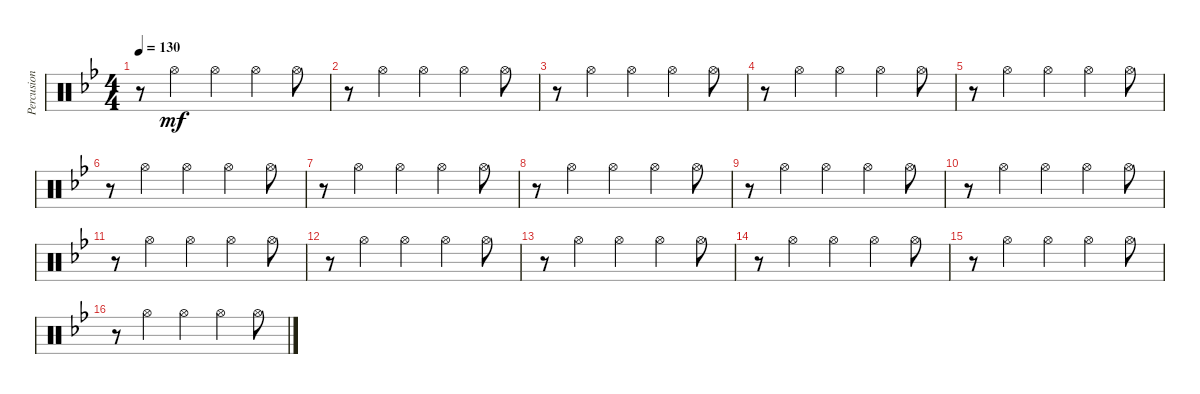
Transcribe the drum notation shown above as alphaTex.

\track ("Percusion IV" "Percusion ") {instrument percussion}
\staff {score}
\articulation defaults
\ts (4 4)
\tempo 130
\clef neutral
\ks gminor
r.8{dy mf} "Hi-Hat (open)".4 "Hi-Hat (open)".4 "Hi-Hat (open)".4 "Hi-Hat (open)".8 |
r.8 "Hi-Hat (open)".4 "Hi-Hat (open)".4 "Hi-Hat (open)".4 "Hi-Hat (open)".8 |
r.8 "Hi-Hat (open)".4 "Hi-Hat (open)".4 "Hi-Hat (open)".4 "Hi-Hat (open)".8 |
r.8 "Hi-Hat (open)".4 "Hi-Hat (open)".4 "Hi-Hat (open)".4 "Hi-Hat (open)".8 |
r.8 "Hi-Hat (open)".4 "Hi-Hat (open)".4 "Hi-Hat (open)".4 "Hi-Hat (open)".8 |
r.8 "Hi-Hat (open)".4 "Hi-Hat (open)".4 "Hi-Hat (open)".4 "Hi-Hat (open)".8 |
r.8 "Hi-Hat (open)".4 "Hi-Hat (open)".4 "Hi-Hat (open)".4 "Hi-Hat (open)".8 |
r.8 "Hi-Hat (open)".4 "Hi-Hat (open)".4 "Hi-Hat (open)".4 "Hi-Hat (open)".8 |
r.8 "Hi-Hat (open)".4 "Hi-Hat (open)".4 "Hi-Hat (open)".4 "Hi-Hat (open)".8 |
r.8 "Hi-Hat (open)".4 "Hi-Hat (open)".4 "Hi-Hat (open)".4 "Hi-Hat (open)".8 |
r.8 "Hi-Hat (open)".4 "Hi-Hat (open)".4 "Hi-Hat (open)".4 "Hi-Hat (open)".8 |
r.8 "Hi-Hat (open)".4 "Hi-Hat (open)".4 "Hi-Hat (open)".4 "Hi-Hat (open)".8 |
r.8 "Hi-Hat (open)".4 "Hi-Hat (open)".4 "Hi-Hat (open)".4 "Hi-Hat (open)".8 |
r.8 "Hi-Hat (open)".4 "Hi-Hat (open)".4 "Hi-Hat (open)".4 "Hi-Hat (open)".8 |
r.8 "Hi-Hat (open)".4 "Hi-Hat (open)".4 "Hi-Hat (open)".4 "Hi-Hat (open)".8 |
r.8 "Hi-Hat (open)".4 "Hi-Hat (open)".4 "Hi-Hat (open)".4 "Hi-Hat (open)".8
